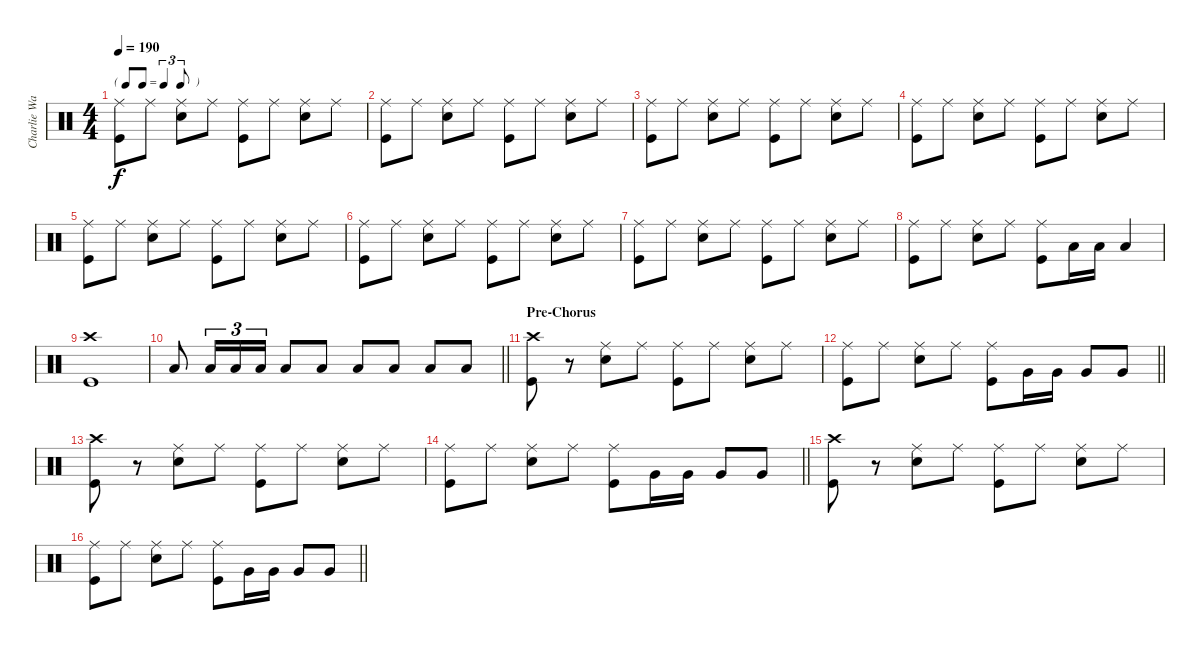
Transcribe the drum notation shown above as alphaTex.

\track ("Charlie Watts" "Charlie Wa") {instrument percussion}
\staff {score}
\articulation defaults
\ts (4 4)
\tf triplet8th
\tempo 190
\clef neutral
\ks c
("Ride (middle)" "Kick (hit)").8{dy f} "Ride (middle)".8 ("Ride (middle)" "Snare (hit) 2").8 "Ride (middle)".8 ("Ride (middle)" "Kick (hit)").8 "Ride (middle)".8 ("Ride (middle)" "Snare (hit) 2").8 "Ride (middle)".8 |
("Ride (middle)" "Kick (hit)").8 "Ride (middle)".8 ("Ride (middle)" "Snare (hit) 2").8 "Ride (middle)".8 ("Ride (middle)" "Kick (hit)").8 "Ride (middle)".8 ("Ride (middle)" "Snare (hit) 2").8 "Ride (middle)".8 |
("Ride (middle)" "Kick (hit)").8 "Ride (middle)".8 ("Ride (middle)" "Snare (hit) 2").8 "Ride (middle)".8 ("Ride (middle)" "Kick (hit)").8 "Ride (middle)".8 ("Ride (middle)" "Snare (hit) 2").8 "Ride (middle)".8 |
("Ride (middle)" "Kick (hit)").8 "Ride (middle)".8 ("Ride (middle)" "Snare (hit) 2").8 "Ride (middle)".8 ("Ride (middle)" "Kick (hit)").8 "Ride (middle)".8 ("Ride (middle)" "Snare (hit) 2").8 "Ride (middle)".8 |
("Ride (middle)" "Kick (hit)").8 "Ride (middle)".8 ("Ride (middle)" "Snare (hit) 2").8 "Ride (middle)".8 ("Ride (middle)" "Kick (hit)").8 "Ride (middle)".8 ("Ride (middle)" "Snare (hit) 2").8 "Ride (middle)".8 |
("Ride (middle)" "Kick (hit)").8 "Ride (middle)".8 ("Ride (middle)" "Snare (hit) 2").8 "Ride (middle)".8 ("Ride (middle)" "Kick (hit)").8 "Ride (middle)".8 ("Ride (middle)" "Snare (hit) 2").8 "Ride (middle)".8 |
("Ride (middle)" "Kick (hit)").8 "Ride (middle)".8 ("Ride (middle)" "Snare (hit) 2").8 "Ride (middle)".8 ("Ride (middle)" "Kick (hit)").8 "Ride (middle)".8 ("Ride (middle)" "Snare (hit) 2").8 "Ride (middle)".8 |
("Ride (middle)" "Kick (hit)").8 "Ride (middle)".8 ("Ride (middle)" "Snare (hit) 2").8 "Ride (middle)".8 ("Ride (middle)" "Kick (hit)").8 "Low Tom (hit)".16 "Low Tom (hit)".16 "Low Tom (hit)".4 |
("Crash high (hit)" "Kick (hit)").1 |
\barLineRight lightlight "Low Tom (hit)".8 "Low Tom (hit)".16{tu (3 2)} "Low Tom (hit)".16{tu (3 2)} "Low Tom (hit)".16{tu (3 2)} "Low Tom (hit)".8 "Low Tom (hit)".8 "Low Tom (hit)".8 "Low Tom (hit)".8 "Low Tom (hit)".8 "Low Tom (hit)".8
|
\section ("" "Pre-Chorus")
("Crash high (hit)" "Kick (hit)").8 r.8 ("Ride (middle)" "Snare (hit) 2").8 "Ride (middle)".8 ("Ride (middle)" "Kick (hit)").8 "Ride (middle)".8 ("Ride (middle)" "Snare (hit) 2").8 "Ride (middle)".8 |
\barLineRight lightlight
("Ride (middle)" "Kick (hit)").8 "Ride (middle)".8 ("Ride (middle)" "Snare (hit) 2").8 "Ride (middle)".8 ("Ride (middle)" "Kick (hit)").8 "Very Low Tom (hit)".16 "Very Low Tom (hit)".16 "Very Low Tom (hit)".8 "Very Low Tom (hit)".8 |
("Crash high (hit)" "Kick (hit)").8 r.8 ("Ride (middle)" "Snare (hit) 2").8 "Ride (middle)".8 ("Ride (middle)" "Kick (hit)").8 "Ride (middle)".8 ("Ride (middle)" "Snare (hit) 2").8 "Ride (middle)".8 |
\barLineRight lightlight
("Ride (middle)" "Kick (hit)").8 "Ride (middle)".8 ("Ride (middle)" "Snare (hit) 2").8 "Ride (middle)".8 ("Ride (middle)" "Kick (hit)").8 "Very Low Tom (hit)".16 "Very Low Tom (hit)".16 "Very Low Tom (hit)".8 "Very Low Tom (hit)".8 |
("Crash high (hit)" "Kick (hit)").8 r.8 ("Ride (middle)" "Snare (hit) 2").8 "Ride (middle)".8 ("Ride (middle)" "Kick (hit)").8 "Ride (middle)".8 ("Ride (middle)" "Snare (hit) 2").8 "Ride (middle)".8 |
\barLineRight lightlight
("Ride (middle)" "Kick (hit)").8 "Ride (middle)".8 ("Ride (middle)" "Snare (hit) 2").8 "Ride (middle)".8 ("Ride (middle)" "Kick (hit)").8 "Very Low Tom (hit)".16 "Very Low Tom (hit)".16 "Very Low Tom (hit)".8 "Very Low Tom (hit)".8
